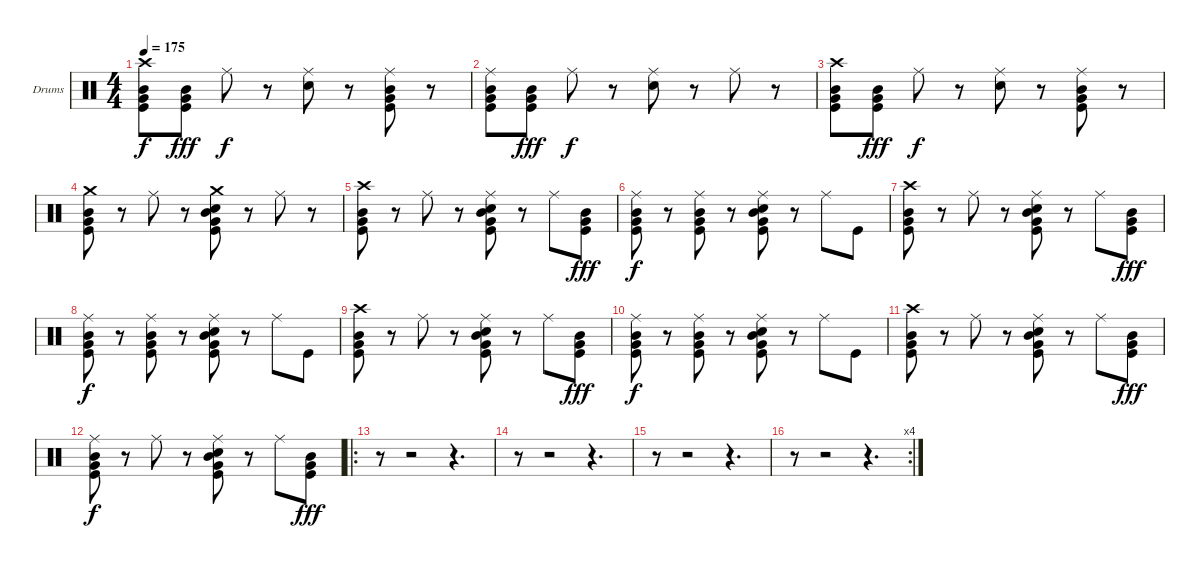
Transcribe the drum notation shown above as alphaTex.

\bracketExtendMode groupsimilarinstruments
\firstSystemTrackNameOrientation horizontal
\otherSystemsTrackNameOrientation horizontal
\track ("Drumkit" "Drums") {instrument percussion}
\staff {score}
\articulation defaults
\ts (4 4)
\tempo 175
\clef neutral
\ks c
("Crash high (hit)" "Mid Tom (hit)" "Very Low Tom (hit)" "Kick (hit)").8{dy f} ("Mid Tom (hit)" "Very Low Tom (hit)" "Kick (hit)").8{dy fff} "Ride (middle)".8{dy f} r.8 ("Ride (middle)" "Snare (hit) 2").8 r.8 ("Ride (middle)" "Mid Tom (hit)" "Very Low Tom (hit)" "Kick (hit)").8 r.8 |
("Ride (middle)" "Mid Tom (hit)" "Very Low Tom (hit)" "Kick (hit)").8 ("Mid Tom (hit)" "Very Low Tom (hit)" "Kick (hit)").8{dy fff} "Ride (middle)".8{dy f} r.8 ("Ride (middle)" "Snare (hit) 2").8 r.8 "Ride (middle)".8 r.8 |
("Crash high (hit)" "Mid Tom (hit)" "Very Low Tom (hit)" "Kick (hit)").8 ("Mid Tom (hit)" "Very Low Tom (hit)" "Kick (hit)").8{dy fff} "Ride (middle)".8{dy f} r.8 ("Ride (middle)" "Snare (hit) 2").8 r.8 ("Ride (middle)" "Mid Tom (hit)" "Very Low Tom (hit)" "Kick (hit)").8 r.8 |
("Crash medium (hit)" "Mid Tom (hit)" "Very Low Tom (hit)" "Kick (hit)").8 r.8 "Ride (middle)".8 r.8 ("Crash medium (hit)" "Snare (hit) 2" "Mid Tom (hit)" "Very Low Tom (hit)" "Kick (hit)").8 r.8 "Ride (middle)".8 r.8 |
("Crash high (hit)" "Mid Tom (hit)" "Very Low Tom (hit)" "Kick (hit)").8 r.8 "Ride (middle)".8 r.8 ("Ride (middle)" "Snare (hit) 2" "Mid Tom (hit)" "Very Low Tom (hit)" "Kick (hit)").8 r.8 "Ride (middle)".8 ("Mid Tom (hit)" "Very Low Tom (hit)" "Kick (hit)").8{dy fff} |
("Ride (middle)" "Mid Tom (hit)" "Very Low Tom (hit)" "Kick (hit)").8{dy f} r.8 ("Ride (middle)" "Mid Tom (hit)" "Very Low Tom (hit)" "Kick (hit)").8 r.8 ("Ride (middle)" "Snare (hit) 2" "Mid Tom (hit)" "Very Low Tom (hit)" "Kick (hit)").8 r.8 "Ride (middle)".8 "Kick (hit)".8 |
("Crash high (hit)" "Mid Tom (hit)" "Very Low Tom (hit)" "Kick (hit)").8 r.8 "Ride (middle)".8 r.8 ("Ride (middle)" "Snare (hit) 2" "Mid Tom (hit)" "Very Low Tom (hit)" "Kick (hit)").8 r.8 "Ride (middle)".8 ("Mid Tom (hit)" "Very Low Tom (hit)" "Kick (hit)").8{dy fff} |
("Ride (middle)" "Mid Tom (hit)" "Very Low Tom (hit)" "Kick (hit)").8{dy f} r.8 ("Ride (middle)" "Mid Tom (hit)" "Very Low Tom (hit)" "Kick (hit)").8 r.8 ("Ride (middle)" "Snare (hit) 2" "Mid Tom (hit)" "Very Low Tom (hit)" "Kick (hit)").8 r.8 "Ride (middle)".8 "Kick (hit)".8 |
("Crash high (hit)" "Mid Tom (hit)" "Very Low Tom (hit)" "Kick (hit)").8 r.8 "Ride (middle)".8 r.8 ("Ride (middle)" "Snare (hit) 2" "Mid Tom (hit)" "Very Low Tom (hit)" "Kick (hit)").8 r.8 "Ride (middle)".8 ("Mid Tom (hit)" "Very Low Tom (hit)" "Kick (hit)").8{dy fff} |
("Ride (middle)" "Mid Tom (hit)" "Very Low Tom (hit)" "Kick (hit)").8{dy f} r.8 ("Ride (middle)" "Mid Tom (hit)" "Very Low Tom (hit)" "Kick (hit)").8 r.8 ("Ride (middle)" "Snare (hit) 2" "Mid Tom (hit)" "Very Low Tom (hit)" "Kick (hit)").8 r.8 "Ride (middle)".8 "Kick (hit)".8 |
("Crash high (hit)" "Mid Tom (hit)" "Very Low Tom (hit)" "Kick (hit)").8 r.8 "Ride (middle)".8 r.8 ("Ride (middle)" "Snare (hit) 2" "Mid Tom (hit)" "Very Low Tom (hit)" "Kick (hit)").8 r.8 "Ride (middle)".8 ("Mid Tom (hit)" "Very Low Tom (hit)" "Kick (hit)").8{dy fff} |
("Ride (middle)" "Mid Tom (hit)" "Very Low Tom (hit)" "Kick (hit)").8{dy f} r.8 "Ride (middle)".8 r.8 ("Ride (middle)" "Snare (hit) 2" "Mid Tom (hit)" "Very Low Tom (hit)" "Kick (hit)").8 r.8 "Ride (middle)".8 ("Mid Tom (hit)" "Very Low Tom (hit)" "Kick (hit)").8{dy fff} |
\ro
r.8 r.2 r.4{d} |
r.8 r.2 r.4{d} |
r.8 r.2 r.4{d} |
\rc 4
r.8 r.2 r.4{d}
